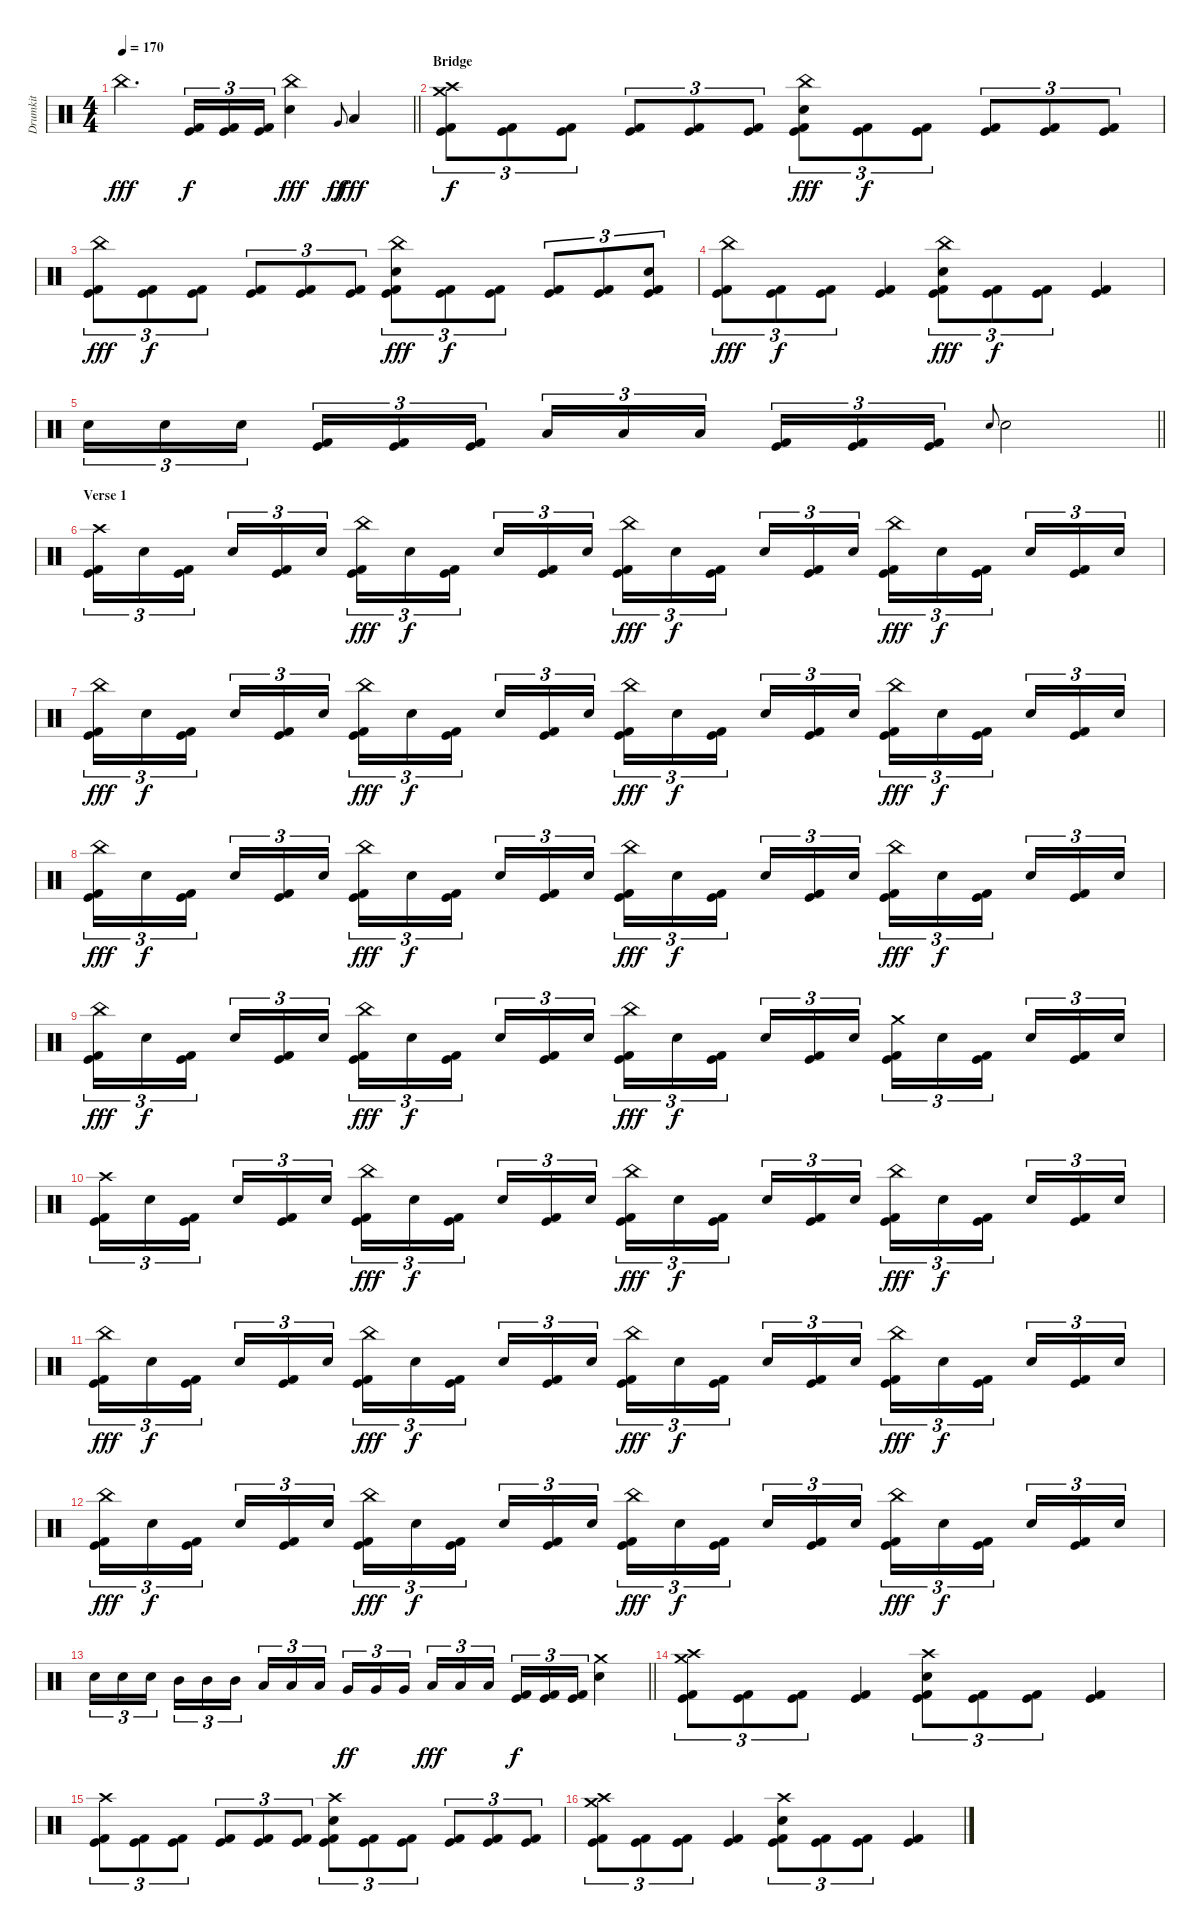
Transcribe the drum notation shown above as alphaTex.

\track ("Drumkit" "Drumkit") {instrument percussion}
\staff {score}
\articulation defaults
\ts (4 4)
\tempo 170
\clef neutral
\barLineRight lightlight
\ks c "China (hit)".4{d dy fff}
("Kick (hit)" "Kick (hit) 2").16{tu (3 2) dy f} ("Kick (hit)" "Kick (hit) 2").16{tu (3 2)} ("Kick (hit)" "Kick (hit) 2").16{tu (3 2)} ("China (hit)" "Electric Snare (hit)").4{dy fff} "Very Low Tom (hit)".8{gr onbeat dy ff} "Low Floor Tom (hit)".4{dy fff} |
\section ("" "Bridge")
("Crash high (hit)" "Crash medium (hit)" "Kick (hit)" "Kick (hit) 2").8{tu (3 2) dy f} ("Kick (hit)" "Kick (hit) 2").8{tu (3 2)} ("Kick (hit)" "Kick (hit) 2").8{tu (3 2)} ("Kick (hit)" "Kick (hit) 2").8{tu (3 2)} ("Kick (hit)" "Kick (hit) 2").8{tu (3 2)} ("Kick (hit)" "Kick (hit) 2").8{tu (3 2)} ("China (hit)" "Electric Snare (hit)" "Kick (hit)" "Kick (hit) 2").8{tu (3 2) dy fff} ("Kick (hit)" "Kick (hit) 2").8{tu (3 2) dy f} ("Kick (hit)" "Kick (hit) 2").8{tu (3 2)} ("Kick (hit)" "Kick (hit) 2").8{tu (3 2)} ("Kick (hit)" "Kick (hit) 2").8{tu (3 2)} ("Kick (hit)" "Kick (hit) 2").8{tu (3 2)} |
("China (hit)" "Kick (hit)" "Kick (hit) 2").8{tu (3 2) dy fff} ("Kick (hit)" "Kick (hit) 2").8{tu (3 2) dy f} ("Kick (hit)" "Kick (hit) 2").8{tu (3 2)} ("Kick (hit)" "Kick (hit) 2").8{tu (3 2)} ("Kick (hit)" "Kick (hit) 2").8{tu (3 2)} ("Kick (hit)" "Kick (hit) 2").8{tu (3 2)} ("China (hit)" "Electric Snare (hit)" "Kick (hit)" "Kick (hit) 2").8{tu (3 2) dy fff} ("Kick (hit)" "Kick (hit) 2").8{tu (3 2) dy f} ("Kick (hit)" "Kick (hit) 2").8{tu (3 2)} ("Kick (hit)" "Kick (hit) 2").8{tu (3 2)} ("Kick (hit)" "Kick (hit) 2").8{tu (3 2)} ("Electric Snare (hit)" "Kick (hit)" "Kick (hit) 2").8{tu (3 2)} |
("China (hit)" "Kick (hit)" "Kick (hit) 2").8{tu (3 2) dy fff} ("Kick (hit)" "Kick (hit) 2").8{tu (3 2) dy f} ("Kick (hit)" "Kick (hit) 2").8{tu (3 2)} ("Kick (hit)" "Kick (hit) 2").4 ("China (hit)" "Electric Snare (hit)" "Kick (hit)" "Kick (hit) 2").8{tu (3 2) dy fff} ("Kick (hit)" "Kick (hit) 2").8{tu (3 2) dy f} ("Kick (hit)" "Kick (hit) 2").8{tu (3 2)} ("Kick (hit)" "Kick (hit) 2").4 |
\barLineRight lightlight "Electric Snare (hit)".16{tu (3 2)} "Electric Snare (hit)".16{tu (3 2)} "Electric Snare (hit)".16{tu (3 2) beam splitsecondary}
("Kick (hit)" "Kick (hit) 2").16{tu (3 2)} ("Kick (hit)" "Kick (hit) 2").16{tu (3 2)} ("Kick (hit)" "Kick (hit) 2").16{tu (3 2)} "Low Tom (hit)".16{tu (3 2)} "Low Tom (hit)".16{tu (3 2)} "Low Tom (hit)".16{tu (3 2) beam splitsecondary} ("Kick (hit)" "Kick (hit) 2").16{tu (3 2)} ("Kick (hit)" "Kick (hit) 2").16{tu (3 2)} ("Kick (hit)" "Kick (hit) 2").16{tu (3 2)} "Electric Snare (hit)".8{gr onbeat} "Electric Snare (hit)".2 |
\section ("" "Verse 1")
("Crash high (hit)" "Kick (hit)" "Kick (hit) 2").16{tu (3 2)} "Electric Snare (hit)".16{tu (3 2)} ("Kick (hit)" "Kick (hit) 2").16{tu (3 2) beam splitsecondary} "Electric Snare (hit)".16{tu (3 2)} ("Kick (hit)" "Kick (hit) 2").16{tu (3 2)} "Electric Snare (hit)".16{tu (3 2)} ("China (hit)" "Kick (hit)" "Kick (hit) 2").16{tu (3 2) dy fff} "Electric Snare (hit)".16{tu (3 2) dy f} ("Kick (hit)" "Kick (hit) 2").16{tu (3 2) beam splitsecondary} "Electric Snare (hit)".16{tu (3 2)} ("Kick (hit)" "Kick (hit) 2").16{tu (3 2)} "Electric Snare (hit)".16{tu (3 2)} ("China (hit)" "Kick (hit)" "Kick (hit) 2").16{tu (3 2) dy fff} "Electric Snare (hit)".16{tu (3 2) dy f} ("Kick (hit)" "Kick (hit) 2").16{tu (3 2) beam splitsecondary} "Electric Snare (hit)".16{tu (3 2)} ("Kick (hit)" "Kick (hit) 2").16{tu (3 2)} "Electric Snare (hit)".16{tu (3 2)} ("China (hit)" "Kick (hit)" "Kick (hit) 2").16{tu (3 2) dy fff} "Electric Snare (hit)".16{tu (3 2) dy f} ("Kick (hit)" "Kick (hit) 2").16{tu (3 2) beam splitsecondary} "Electric Snare (hit)".16{tu (3 2)} ("Kick (hit)" "Kick (hit) 2").16{tu (3 2)} "Electric Snare (hit)".16{tu (3 2)} |
("China (hit)" "Kick (hit)" "Kick (hit) 2").16{tu (3 2) dy fff} "Electric Snare (hit)".16{tu (3 2) dy f} ("Kick (hit)" "Kick (hit) 2").16{tu (3 2) beam splitsecondary} "Electric Snare (hit)".16{tu (3 2)} ("Kick (hit)" "Kick (hit) 2").16{tu (3 2)} "Electric Snare (hit)".16{tu (3 2)} ("China (hit)" "Kick (hit)" "Kick (hit) 2").16{tu (3 2) dy fff} "Electric Snare (hit)".16{tu (3 2) dy f} ("Kick (hit)" "Kick (hit) 2").16{tu (3 2) beam splitsecondary} "Electric Snare (hit)".16{tu (3 2)} ("Kick (hit)" "Kick (hit) 2").16{tu (3 2)} "Electric Snare (hit)".16{tu (3 2)} ("China (hit)" "Kick (hit)" "Kick (hit) 2").16{tu (3 2) dy fff} "Electric Snare (hit)".16{tu (3 2) dy f} ("Kick (hit)" "Kick (hit) 2").16{tu (3 2) beam splitsecondary} "Electric Snare (hit)".16{tu (3 2)} ("Kick (hit)" "Kick (hit) 2").16{tu (3 2)} "Electric Snare (hit)".16{tu (3 2)} ("China (hit)" "Kick (hit)" "Kick (hit) 2").16{tu (3 2) dy fff} "Electric Snare (hit)".16{tu (3 2) dy f} ("Kick (hit)" "Kick (hit) 2").16{tu (3 2) beam splitsecondary} "Electric Snare (hit)".16{tu (3 2)} ("Kick (hit)" "Kick (hit) 2").16{tu (3 2)} "Electric Snare (hit)".16{tu (3 2)} |
("China (hit)" "Kick (hit)" "Kick (hit) 2").16{tu (3 2) dy fff} "Electric Snare (hit)".16{tu (3 2) dy f} ("Kick (hit)" "Kick (hit) 2").16{tu (3 2) beam splitsecondary} "Electric Snare (hit)".16{tu (3 2)} ("Kick (hit)" "Kick (hit) 2").16{tu (3 2)} "Electric Snare (hit)".16{tu (3 2)} ("China (hit)" "Kick (hit)" "Kick (hit) 2").16{tu (3 2) dy fff} "Electric Snare (hit)".16{tu (3 2) dy f} ("Kick (hit)" "Kick (hit) 2").16{tu (3 2) beam splitsecondary} "Electric Snare (hit)".16{tu (3 2)} ("Kick (hit)" "Kick (hit) 2").16{tu (3 2)} "Electric Snare (hit)".16{tu (3 2)} ("China (hit)" "Kick (hit)" "Kick (hit) 2").16{tu (3 2) dy fff} "Electric Snare (hit)".16{tu (3 2) dy f} ("Kick (hit)" "Kick (hit) 2").16{tu (3 2) beam splitsecondary} "Electric Snare (hit)".16{tu (3 2)} ("Kick (hit)" "Kick (hit) 2").16{tu (3 2)} "Electric Snare (hit)".16{tu (3 2)} ("China (hit)" "Kick (hit)" "Kick (hit) 2").16{tu (3 2) dy fff} "Electric Snare (hit)".16{tu (3 2) dy f} ("Kick (hit)" "Kick (hit) 2").16{tu (3 2) beam splitsecondary} "Electric Snare (hit)".16{tu (3 2)} ("Kick (hit)" "Kick (hit) 2").16{tu (3 2)} "Electric Snare (hit)".16{tu (3 2)} |
("China (hit)" "Kick (hit)" "Kick (hit) 2").16{tu (3 2) dy fff} "Electric Snare (hit)".16{tu (3 2) dy f} ("Kick (hit)" "Kick (hit) 2").16{tu (3 2) beam splitsecondary} "Electric Snare (hit)".16{tu (3 2)} ("Kick (hit)" "Kick (hit) 2").16{tu (3 2)} "Electric Snare (hit)".16{tu (3 2)} ("China (hit)" "Kick (hit)" "Kick (hit) 2").16{tu (3 2) dy fff} "Electric Snare (hit)".16{tu (3 2) dy f} ("Kick (hit)" "Kick (hit) 2").16{tu (3 2) beam splitsecondary} "Electric Snare (hit)".16{tu (3 2)} ("Kick (hit)" "Kick (hit) 2").16{tu (3 2)} "Electric Snare (hit)".16{tu (3 2)} ("China (hit)" "Kick (hit)" "Kick (hit) 2").16{tu (3 2) dy fff} "Electric Snare (hit)".16{tu (3 2) dy f} ("Kick (hit)" "Kick (hit) 2").16{tu (3 2) beam splitsecondary} "Electric Snare (hit)".16{tu (3 2)} ("Kick (hit)" "Kick (hit) 2").16{tu (3 2)} "Electric Snare (hit)".16{tu (3 2)} ("Crash medium (hit)" "Kick (hit)" "Kick (hit) 2").16{tu (3 2)} "Electric Snare (hit)".16{tu (3 2)} ("Kick (hit)" "Kick (hit) 2").16{tu (3 2) beam splitsecondary} "Electric Snare (hit)".16{tu (3 2)} ("Kick (hit)" "Kick (hit) 2").16{tu (3 2)} "Electric Snare (hit)".16{tu (3 2)} |
("Crash high (hit)" "Kick (hit)" "Kick (hit) 2").16{tu (3 2)} "Electric Snare (hit)".16{tu (3 2)} ("Kick (hit)" "Kick (hit) 2").16{tu (3 2) beam splitsecondary} "Electric Snare (hit)".16{tu (3 2)} ("Kick (hit)" "Kick (hit) 2").16{tu (3 2)} "Electric Snare (hit)".16{tu (3 2)} ("China (hit)" "Kick (hit)" "Kick (hit) 2").16{tu (3 2) dy fff} "Electric Snare (hit)".16{tu (3 2) dy f} ("Kick (hit)" "Kick (hit) 2").16{tu (3 2) beam splitsecondary} "Electric Snare (hit)".16{tu (3 2)} ("Kick (hit)" "Kick (hit) 2").16{tu (3 2)} "Electric Snare (hit)".16{tu (3 2)} ("China (hit)" "Kick (hit)" "Kick (hit) 2").16{tu (3 2) dy fff} "Electric Snare (hit)".16{tu (3 2) dy f} ("Kick (hit)" "Kick (hit) 2").16{tu (3 2) beam splitsecondary} "Electric Snare (hit)".16{tu (3 2)} ("Kick (hit)" "Kick (hit) 2").16{tu (3 2)} "Electric Snare (hit)".16{tu (3 2)} ("China (hit)" "Kick (hit)" "Kick (hit) 2").16{tu (3 2) dy fff} "Electric Snare (hit)".16{tu (3 2) dy f} ("Kick (hit)" "Kick (hit) 2").16{tu (3 2) beam splitsecondary} "Electric Snare (hit)".16{tu (3 2)} ("Kick (hit)" "Kick (hit) 2").16{tu (3 2)} "Electric Snare (hit)".16{tu (3 2)} |
("China (hit)" "Kick (hit)" "Kick (hit) 2").16{tu (3 2) dy fff} "Electric Snare (hit)".16{tu (3 2) dy f} ("Kick (hit)" "Kick (hit) 2").16{tu (3 2) beam splitsecondary} "Electric Snare (hit)".16{tu (3 2)} ("Kick (hit)" "Kick (hit) 2").16{tu (3 2)} "Electric Snare (hit)".16{tu (3 2)} ("China (hit)" "Kick (hit)" "Kick (hit) 2").16{tu (3 2) dy fff} "Electric Snare (hit)".16{tu (3 2) dy f} ("Kick (hit)" "Kick (hit) 2").16{tu (3 2) beam splitsecondary} "Electric Snare (hit)".16{tu (3 2)} ("Kick (hit)" "Kick (hit) 2").16{tu (3 2)} "Electric Snare (hit)".16{tu (3 2)} ("China (hit)" "Kick (hit)" "Kick (hit) 2").16{tu (3 2) dy fff} "Electric Snare (hit)".16{tu (3 2) dy f} ("Kick (hit)" "Kick (hit) 2").16{tu (3 2) beam splitsecondary} "Electric Snare (hit)".16{tu (3 2)} ("Kick (hit)" "Kick (hit) 2").16{tu (3 2)} "Electric Snare (hit)".16{tu (3 2)} ("China (hit)" "Kick (hit)" "Kick (hit) 2").16{tu (3 2) dy fff} "Electric Snare (hit)".16{tu (3 2) dy f} ("Kick (hit)" "Kick (hit) 2").16{tu (3 2) beam splitsecondary} "Electric Snare (hit)".16{tu (3 2)} ("Kick (hit)" "Kick (hit) 2").16{tu (3 2)} "Electric Snare (hit)".16{tu (3 2)} |
("China (hit)" "Kick (hit)" "Kick (hit) 2").16{tu (3 2) dy fff} "Electric Snare (hit)".16{tu (3 2) dy f} ("Kick (hit)" "Kick (hit) 2").16{tu (3 2) beam splitsecondary} "Electric Snare (hit)".16{tu (3 2)} ("Kick (hit)" "Kick (hit) 2").16{tu (3 2)} "Electric Snare (hit)".16{tu (3 2)} ("China (hit)" "Kick (hit)" "Kick (hit) 2").16{tu (3 2) dy fff} "Electric Snare (hit)".16{tu (3 2) dy f} ("Kick (hit)" "Kick (hit) 2").16{tu (3 2) beam splitsecondary} "Electric Snare (hit)".16{tu (3 2)} ("Kick (hit)" "Kick (hit) 2").16{tu (3 2)} "Electric Snare (hit)".16{tu (3 2)} ("China (hit)" "Kick (hit)" "Kick (hit) 2").16{tu (3 2) dy fff} "Electric Snare (hit)".16{tu (3 2) dy f} ("Kick (hit)" "Kick (hit) 2").16{tu (3 2) beam splitsecondary} "Electric Snare (hit)".16{tu (3 2)} ("Kick (hit)" "Kick (hit) 2").16{tu (3 2)} "Electric Snare (hit)".16{tu (3 2)} ("China (hit)" "Kick (hit)" "Kick (hit) 2").16{tu (3 2) dy fff} "Electric Snare (hit)".16{tu (3 2) dy f} ("Kick (hit)" "Kick (hit) 2").16{tu (3 2) beam splitsecondary} "Electric Snare (hit)".16{tu (3 2)} ("Kick (hit)" "Kick (hit) 2").16{tu (3 2)} "Electric Snare (hit)".16{tu (3 2)} |
\barLineRight lightlight "Electric Snare (hit)".16{tu (3 2)} "Electric Snare (hit)".16{tu (3 2)} "Electric Snare (hit)".16{tu (3 2) beam splitsecondary} "Mid Tom (hit)".16{tu (3 2)} "Mid Tom (hit)".16{tu (3 2)} "Mid Tom (hit)".16{tu (3 2)} "Low Tom (hit)".16{tu (3 2)} "Low Tom (hit)".16{tu (3 2)} "Low Tom (hit)".16{tu (3 2) beam splitsecondary} "Very Low Tom (hit)".16{tu (3 2) dy ff} "Very Low Tom (hit)".16{tu (3 2)} "Very Low Tom (hit)".16{tu (3 2)} "Low Floor Tom (hit)".16{tu (3 2) dy fff} "Low Floor Tom (hit)".16{tu (3 2)} "Low Floor Tom (hit)".16{tu (3 2) beam splitsecondary}
("Kick (hit)" "Kick (hit) 2").16{tu (3 2) dy f} ("Kick (hit)" "Kick (hit) 2").16{tu (3 2)} ("Kick (hit)" "Kick (hit) 2").16{tu (3 2)} ("Crash medium (hit)" "Electric Snare (hit)").4 |
("Crash high (hit)" "Crash medium (hit)" "Kick (hit)" "Kick (hit) 2").8{tu (3 2)} ("Kick (hit)" "Kick (hit) 2").8{tu (3 2)} ("Kick (hit)" "Kick (hit) 2").8{tu (3 2)} ("Kick (hit)" "Kick (hit) 2").4 ("Crash high (hit)" "Electric Snare (hit)" "Kick (hit)" "Kick (hit) 2").8{tu (3 2)} ("Kick (hit)" "Kick (hit) 2").8{tu (3 2)} ("Kick (hit)" "Kick (hit) 2").8{tu (3 2)} ("Kick (hit)" "Kick (hit) 2").4 |
("Crash high (hit)" "Kick (hit)" "Kick (hit) 2").8{tu (3 2)} ("Kick (hit)" "Kick (hit) 2").8{tu (3 2)} ("Kick (hit)" "Kick (hit) 2").8{tu (3 2)} ("Kick (hit)" "Kick (hit) 2").8{tu (3 2)} ("Kick (hit)" "Kick (hit) 2").8{tu (3 2)} ("Kick (hit)" "Kick (hit) 2").8{tu (3 2)} ("Crash high (hit)" "Electric Snare (hit)" "Kick (hit)" "Kick (hit) 2").8{tu (3 2)} ("Kick (hit)" "Kick (hit) 2").8{tu (3 2)} ("Kick (hit)" "Kick (hit) 2").8{tu (3 2)} ("Kick (hit)" "Kick (hit) 2").8{tu (3 2)} ("Kick (hit)" "Kick (hit) 2").8{tu (3 2)} ("Kick (hit)" "Kick (hit) 2").8{tu (3 2)} |
("Crash high (hit)" "Crash medium (hit)" "Kick (hit)" "Kick (hit) 2").8{tu (3 2)} ("Kick (hit)" "Kick (hit) 2").8{tu (3 2)} ("Kick (hit)" "Kick (hit) 2").8{tu (3 2)} ("Kick (hit)" "Kick (hit) 2").4 ("Crash high (hit)" "Electric Snare (hit)" "Kick (hit)" "Kick (hit) 2").8{tu (3 2)} ("Kick (hit)" "Kick (hit) 2").8{tu (3 2)} ("Kick (hit)" "Kick (hit) 2").8{tu (3 2)} ("Kick (hit)" "Kick (hit) 2").4
